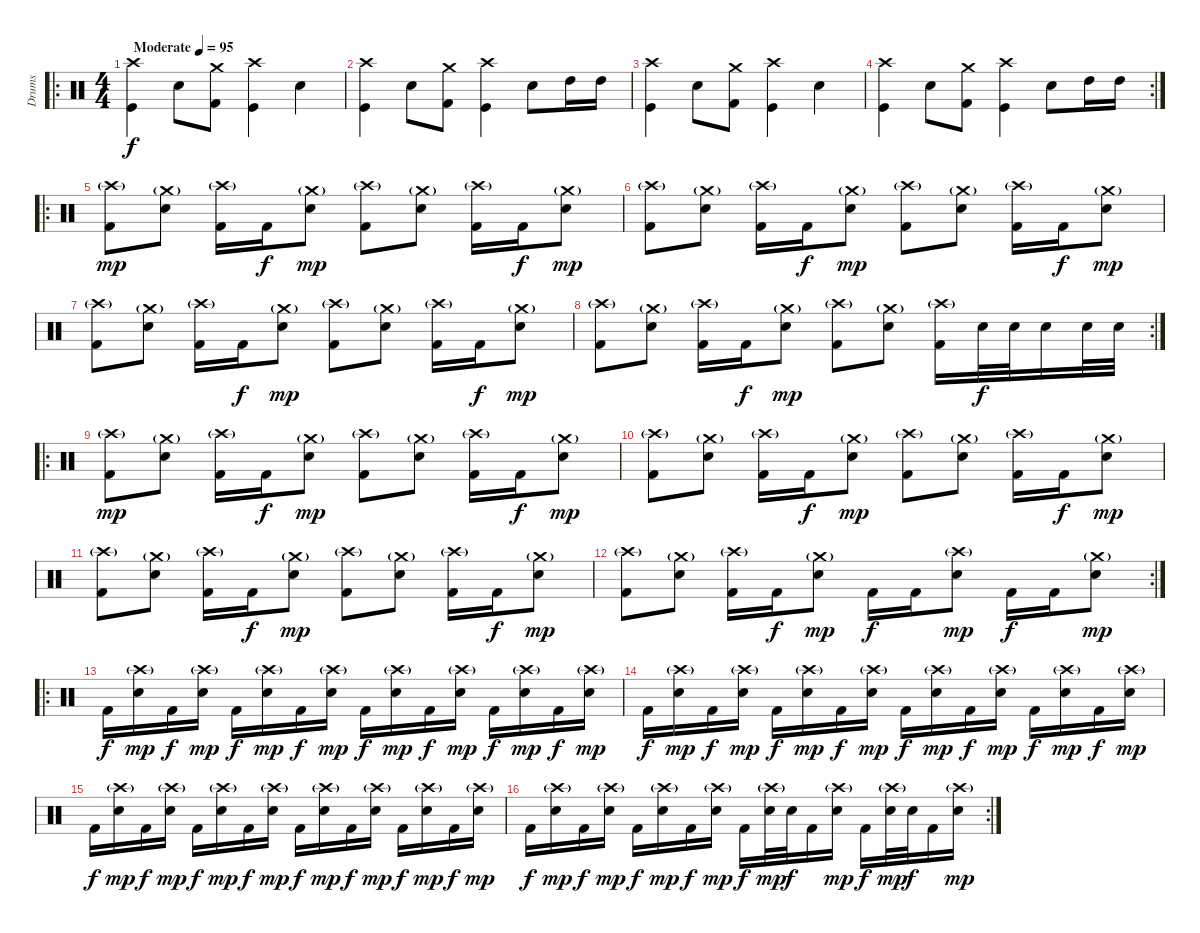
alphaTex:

\track ("Drums" "Drums") {instrument percussion}
\staff {score}
\articulation defaults
\ro
\ts (4 4)
\tempo (95 "Moderate")
\clef neutral
\ks c
("Crash high (hit)" "Kick (hit)").4{dy f} "Electric Snare (hit)".8 ("Kick (hit) 2" "Crash medium (hit)").8 ("Kick (hit)" "Crash high (hit)").4 "Electric Snare (hit)".4 |
("Crash high (hit)" "Kick (hit)").4 "Electric Snare (hit)".8 ("Kick (hit) 2" "Crash medium (hit)").8 ("Kick (hit)" "Crash high (hit)").4 "Electric Snare (hit)".8 "High Tom (hit)".16 "High Tom (hit)".16 |
("Crash high (hit)" "Kick (hit)").4 "Electric Snare (hit)".8 ("Kick (hit) 2" "Crash medium (hit)").8 ("Kick (hit)" "Crash high (hit)").4 "Electric Snare (hit)".4 |
\rc 2
("Crash high (hit)" "Kick (hit)").4 "Electric Snare (hit)".8 ("Kick (hit) 2" "Crash medium (hit)").8 ("Kick (hit)" "Crash high (hit)").4 "Electric Snare (hit)".8 "High Tom (hit)".16 "High Tom (hit)".16 |
\ro
("Crash high (hit)"{g} "Kick (hit) 2").8{dy mp} ("Electric Snare (hit)" "Crash medium (hit)"{g}).8 ("Kick (hit) 2" "Crash high (hit)"{g}).16 "Kick (hit) 2".16{dy f} ("Electric Snare (hit)" "Crash medium (hit)"{g}).8{dy mp} ("Crash high (hit)"{g} "Kick (hit) 2").8 ("Electric Snare (hit)" "Crash medium (hit)"{g}).8 ("Kick (hit) 2" "Crash high (hit)"{g}).16 "Kick (hit) 2".16{dy f} ("Electric Snare (hit)" "Crash medium (hit)"{g}).8{dy mp} |
("Crash high (hit)"{g} "Kick (hit) 2").8 ("Electric Snare (hit)" "Crash medium (hit)"{g}).8 ("Kick (hit) 2" "Crash high (hit)"{g}).16 "Kick (hit) 2".16{dy f} ("Electric Snare (hit)" "Crash medium (hit)"{g}).8{dy mp} ("Crash high (hit)"{g} "Kick (hit) 2").8 ("Electric Snare (hit)" "Crash medium (hit)"{g}).8 ("Kick (hit) 2" "Crash high (hit)"{g}).16 "Kick (hit) 2".16{dy f} ("Electric Snare (hit)" "Crash medium (hit)"{g}).8{dy mp} |
("Crash high (hit)"{g} "Kick (hit) 2").8 ("Electric Snare (hit)" "Crash medium (hit)"{g}).8 ("Kick (hit) 2" "Crash high (hit)"{g}).16 "Kick (hit) 2".16{dy f} ("Electric Snare (hit)" "Crash medium (hit)"{g}).8{dy mp} ("Crash high (hit)"{g} "Kick (hit) 2").8 ("Electric Snare (hit)" "Crash medium (hit)"{g}).8 ("Kick (hit) 2" "Crash high (hit)"{g}).16 "Kick (hit) 2".16{dy f} ("Electric Snare (hit)" "Crash medium (hit)"{g}).8{dy mp} |
\rc 2
("Crash high (hit)"{g} "Kick (hit) 2").8 ("Electric Snare (hit)" "Crash medium (hit)"{g}).8 ("Kick (hit) 2" "Crash high (hit)"{g}).16 "Kick (hit) 2".16{dy f} ("Electric Snare (hit)" "Crash medium (hit)"{g}).8{dy mp} ("Crash high (hit)"{g} "Kick (hit) 2").8 ("Electric Snare (hit)" "Crash medium (hit)"{g}).8 ("Kick (hit) 2" "Crash high (hit)"{g}).16 "Electric Snare (hit)".32{dy f} "Electric Snare (hit)".32 "Electric Snare (hit)".16 "Electric Snare (hit)".32 "Electric Snare (hit)".32 |
\ro
("Crash high (hit)"{g} "Kick (hit) 2").8{dy mp} ("Electric Snare (hit)" "Crash medium (hit)"{g}).8 ("Kick (hit) 2" "Crash high (hit)"{g}).16 "Kick (hit) 2".16{dy f} ("Electric Snare (hit)" "Crash medium (hit)"{g}).8{dy mp} ("Crash high (hit)"{g} "Kick (hit) 2").8 ("Electric Snare (hit)" "Crash medium (hit)"{g}).8 ("Kick (hit) 2" "Crash high (hit)"{g}).16 "Kick (hit) 2".16{dy f} ("Electric Snare (hit)" "Crash medium (hit)"{g}).8{dy mp} |
("Crash high (hit)"{g} "Kick (hit) 2").8 ("Electric Snare (hit)" "Crash medium (hit)"{g}).8 ("Kick (hit) 2" "Crash high (hit)"{g}).16 "Kick (hit) 2".16{dy f} ("Electric Snare (hit)" "Crash medium (hit)"{g}).8{dy mp} ("Crash high (hit)"{g} "Kick (hit) 2").8 ("Electric Snare (hit)" "Crash medium (hit)"{g}).8 ("Kick (hit) 2" "Crash high (hit)"{g}).16 "Kick (hit) 2".16{dy f} ("Electric Snare (hit)" "Crash medium (hit)"{g}).8{dy mp} |
("Crash high (hit)"{g} "Kick (hit) 2").8 ("Electric Snare (hit)" "Crash medium (hit)"{g}).8 ("Kick (hit) 2" "Crash high (hit)"{g}).16 "Kick (hit) 2".16{dy f} ("Electric Snare (hit)" "Crash medium (hit)"{g}).8{dy mp} ("Crash high (hit)"{g} "Kick (hit) 2").8 ("Electric Snare (hit)" "Crash medium (hit)"{g}).8 ("Kick (hit) 2" "Crash high (hit)"{g}).16 "Kick (hit) 2".16{dy f} ("Electric Snare (hit)" "Crash medium (hit)"{g}).8{dy mp} |
\rc 2
("Crash high (hit)"{g} "Kick (hit) 2").8 ("Electric Snare (hit)" "Crash medium (hit)"{g}).8 ("Kick (hit) 2" "Crash high (hit)"{g}).16 "Kick (hit) 2".16{dy f} ("Electric Snare (hit)" "Crash medium (hit)"{g}).8{dy mp} "Kick (hit) 2".16{dy f} "Kick (hit) 2".16 ("Electric Snare (hit)" "Crash high (hit)"{g}).8{dy mp} "Kick (hit) 2".16{dy f} "Kick (hit) 2".16 ("Electric Snare (hit)" "Crash medium (hit)"{g}).8{dy mp} |
\ro "Kick (hit) 2".16{dy f}
("Electric Snare (hit)" "Crash high (hit)"{g}).16{dy mp} "Kick (hit) 2".16{dy f} ("Electric Snare (hit)" "Crash high (hit)"{g}).16{dy mp} "Kick (hit) 2".16{dy f} ("Electric Snare (hit)" "Crash high (hit)"{g}).16{dy mp} "Kick (hit) 2".16{dy f} ("Electric Snare (hit)" "Crash high (hit)"{g}).16{dy mp} "Kick (hit) 2".16{dy f} ("Electric Snare (hit)" "Crash high (hit)"{g}).16{dy mp} "Kick (hit) 2".16{dy f} ("Electric Snare (hit)" "Crash high (hit)"{g}).16{dy mp} "Kick (hit) 2".16{dy f} ("Electric Snare (hit)" "Crash high (hit)"{g}).16{dy mp} "Kick (hit) 2".16{dy f} ("Electric Snare (hit)" "Crash high (hit)"{g}).16{dy mp} |
"Kick (hit) 2".16{dy f} ("Electric Snare (hit)" "Crash high (hit)"{g}).16{dy mp} "Kick (hit) 2".16{dy f} ("Electric Snare (hit)" "Crash high (hit)"{g}).16{dy mp} "Kick (hit) 2".16{dy f} ("Electric Snare (hit)" "Crash high (hit)"{g}).16{dy mp} "Kick (hit) 2".16{dy f} ("Electric Snare (hit)" "Crash high (hit)"{g}).16{dy mp} "Kick (hit) 2".16{dy f} ("Electric Snare (hit)" "Crash high (hit)"{g}).16{dy mp} "Kick (hit) 2".16{dy f} ("Electric Snare (hit)" "Crash high (hit)"{g}).16{dy mp} "Kick (hit) 2".16{dy f} ("Electric Snare (hit)" "Crash high (hit)"{g}).16{dy mp} "Kick (hit) 2".16{dy f} ("Electric Snare (hit)" "Crash high (hit)"{g}).16{dy mp} |
"Kick (hit) 2".16{dy f} ("Electric Snare (hit)" "Crash high (hit)"{g}).16{dy mp} "Kick (hit) 2".16{dy f} ("Electric Snare (hit)" "Crash high (hit)"{g}).16{dy mp} "Kick (hit) 2".16{dy f} ("Electric Snare (hit)" "Crash high (hit)"{g}).16{dy mp} "Kick (hit) 2".16{dy f} ("Electric Snare (hit)" "Crash high (hit)"{g}).16{dy mp} "Kick (hit) 2".16{dy f} ("Electric Snare (hit)" "Crash high (hit)"{g}).16{dy mp} "Kick (hit) 2".16{dy f} ("Electric Snare (hit)" "Crash high (hit)"{g}).16{dy mp} "Kick (hit) 2".16{dy f} ("Electric Snare (hit)" "Crash high (hit)"{g}).16{dy mp} "Kick (hit) 2".16{dy f} ("Electric Snare (hit)" "Crash high (hit)"{g}).16{dy mp} |
\rc 2 "Kick (hit) 2".16{dy f}
("Electric Snare (hit)" "Crash high (hit)"{g}).16{dy mp} "Kick (hit) 2".16{dy f} ("Electric Snare (hit)" "Crash high (hit)"{g}).16{dy mp} "Kick (hit) 2".16{dy f} ("Electric Snare (hit)" "Crash high (hit)"{g}).16{dy mp} "Kick (hit) 2".16{dy f} ("Electric Snare (hit)" "Crash high (hit)"{g}).16{dy mp} "Kick (hit) 2".16{dy f} ("Electric Snare (hit)" "Crash high (hit)"{g}).32{dy mp} "Electric Snare (hit)".32{dy f} "Kick (hit) 2".16 ("Electric Snare (hit)" "Crash high (hit)"{g}).16{dy mp} "Kick (hit) 2".16{dy f} ("Electric Snare (hit)" "Crash high (hit)"{g}).32{dy mp} "Electric Snare (hit)".32{dy f} "Kick (hit) 2".16 ("Electric Snare (hit)" "Crash high (hit)"{g}).16{dy mp}
